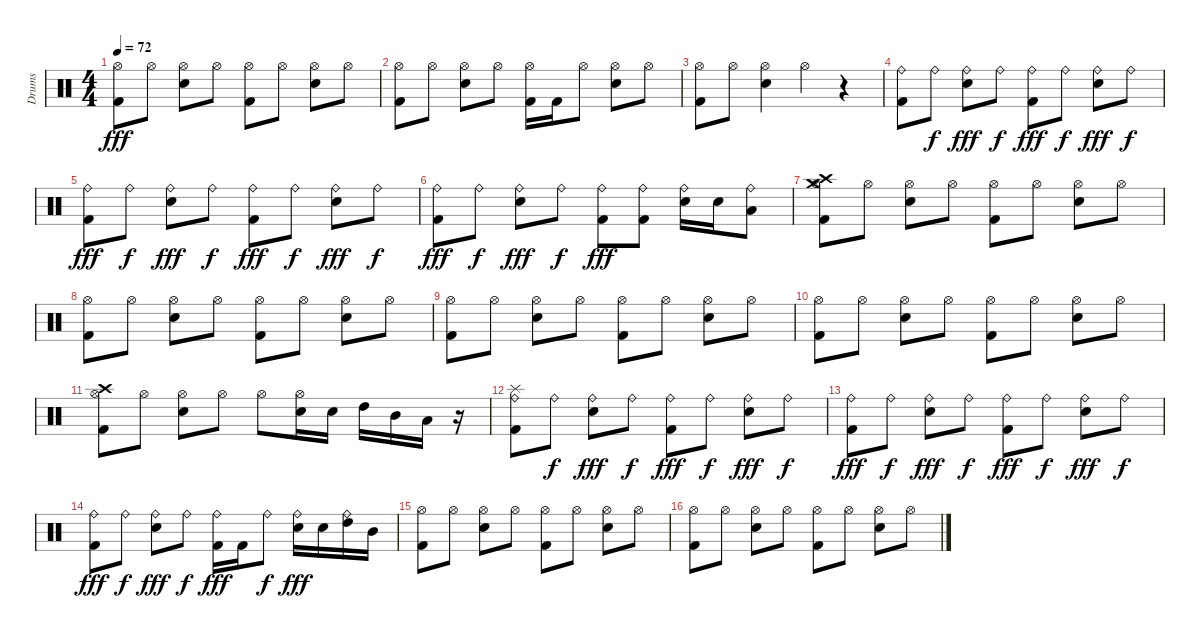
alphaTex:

\track ("Drums" "Drums") {instrument percussion}
\staff {score}
\articulation defaults
\ts (4 4)
\tempo 72
\clef neutral
\ks c
("Hi-Hat (open)" "Kick (hit) 2").8{dy fff} "Hi-Hat (open)".8 ("Hi-Hat (open)" "Snare (hit) 2").8 "Hi-Hat (open)".8 ("Hi-Hat (open)" "Kick (hit) 2").8 "Hi-Hat (open)".8 ("Hi-Hat (open)" "Snare (hit) 2").8 "Hi-Hat (open)".8 |
("Hi-Hat (open)" "Kick (hit) 2").8 "Hi-Hat (open)".8 ("Hi-Hat (open)" "Snare (hit) 2").8 "Hi-Hat (open)".8 ("Kick (hit) 2" "Hi-Hat (open)").16 "Kick (hit) 2".16 "Hi-Hat (open)".8 ("Hi-Hat (open)" "Snare (hit) 2").8 "Hi-Hat (open)".8 |
("Hi-Hat (open)" "Kick (hit) 2").8 "Hi-Hat (open)".8 ("Hi-Hat (open)" "Snare (hit) 2").4 "Hi-Hat (open)".4 r.4 |
("Ride (bell)" "Kick (hit) 2").8 "Ride (bell)".8{dy f} ("Ride (bell)" "Snare (hit) 2").8{dy fff} "Ride (bell)".8{dy f} ("Ride (bell)" "Kick (hit) 2").8{dy fff} "Ride (bell)".8{dy f} ("Ride (bell)" "Snare (hit) 2").8{dy fff} "Ride (bell)".8{dy f} |
("Ride (bell)" "Kick (hit) 2").8{dy fff} "Ride (bell)".8{dy f} ("Ride (bell)" "Snare (hit) 2").8{dy fff} "Ride (bell)".8{dy f} ("Ride (bell)" "Kick (hit) 2").8{dy fff} "Ride (bell)".8{dy f} ("Ride (bell)" "Snare (hit) 2").8{dy fff} "Ride (bell)".8{dy f} |
("Ride (bell)" "Kick (hit) 2").8{dy fff} "Ride (bell)".8{dy f} ("Ride (bell)" "Snare (hit) 2").8{dy fff} "Ride (bell)".8{dy f} ("Ride (bell)" "Kick (hit) 2").8{dy fff} ("Ride (bell)" "Kick (hit) 2").8 ("Ride (bell)" "Electric Snare (hit)").16 "Electric Snare (hit)".16 ("Ride (bell)" "Low Tom (hit)").8 |
("Crash medium (hit)" "Crash high (hit)" "Hi-Hat (open)" "Kick (hit) 2").8 "Hi-Hat (open)".8 ("Hi-Hat (open)" "Snare (hit) 2").8 "Hi-Hat (open)".8 ("Hi-Hat (open)" "Kick (hit) 2").8 "Hi-Hat (open)".8 ("Hi-Hat (open)" "Snare (hit) 2").8 "Hi-Hat (open)".8 |
("Hi-Hat (open)" "Kick (hit) 2").8 "Hi-Hat (open)".8 ("Hi-Hat (open)" "Snare (hit) 2").8 "Hi-Hat (open)".8 ("Hi-Hat (open)" "Kick (hit) 2").8 "Hi-Hat (open)".8 ("Hi-Hat (open)" "Snare (hit) 2").8 "Hi-Hat (open)".8 |
("Hi-Hat (open)" "Kick (hit) 2").8 "Hi-Hat (open)".8 ("Hi-Hat (open)" "Snare (hit) 2").8 "Hi-Hat (open)".8 ("Hi-Hat (open)" "Kick (hit) 2").8 "Hi-Hat (open)".8 ("Hi-Hat (open)" "Snare (hit) 2").8 "Hi-Hat (open)".8 |
("Hi-Hat (open)" "Kick (hit) 2").8 "Hi-Hat (open)".8 ("Hi-Hat (open)" "Snare (hit) 2").8 "Hi-Hat (open)".8 ("Hi-Hat (open)" "Kick (hit) 2").8 "Hi-Hat (open)".8 ("Hi-Hat (open)" "Snare (hit) 2").8 "Hi-Hat (open)".8 |
("Hi-Hat (open)" "Kick (hit) 2" "Crash high (hit)").8 "Hi-Hat (open)".8 ("Hi-Hat (open)" "Electric Snare (hit)").8 "Hi-Hat (open)".8 "Hi-Hat (open)".8 ("Hi-Hat (open)" "Electric Snare (hit)").16 "Electric Snare (hit)".16 "High Tom (hit)".16 "Mid Tom (hit)".16 "Low Tom (hit)".16 r.16 |
("Ride (bell)" "Splash (hit)" "Kick (hit) 2").8 "Ride (bell)".8{dy f} ("Ride (bell)" "Electric Snare (hit)").8{dy fff} "Ride (bell)".8{dy f} ("Ride (bell)" "Kick (hit) 2").8{dy fff} "Ride (bell)".8{dy f} ("Ride (bell)" "Electric Snare (hit)").8{dy fff} "Ride (bell)".8{dy f} |
("Ride (bell)" "Kick (hit) 2").8{dy fff} "Ride (bell)".8{dy f} ("Ride (bell)" "Electric Snare (hit)").8{dy fff} "Ride (bell)".8{dy f} ("Ride (bell)" "Kick (hit) 2").8{dy fff} "Ride (bell)".8{dy f} ("Ride (bell)" "Electric Snare (hit)").8{dy fff} "Ride (bell)".8{dy f} |
("Ride (bell)" "Kick (hit) 2").8{dy fff} "Ride (bell)".8{dy f} ("Ride (bell)" "Electric Snare (hit)").8{dy fff} "Ride (bell)".8{dy f} ("Ride (bell)" "Kick (hit) 2").16{dy fff} "Kick (hit) 2".16 "Ride (bell)".8{dy f} ("Ride (bell)" "Electric Snare (hit)").16{dy fff} "Electric Snare (hit)".16 ("Ride (bell)" "High Tom (hit)").16 "Mid Tom (hit)".16 |
("Hi-Hat (open)" "Kick (hit) 2").8 "Hi-Hat (open)".8 ("Hi-Hat (open)" "Snare (hit) 2").8 "Hi-Hat (open)".8 ("Hi-Hat (open)" "Kick (hit) 2").8 "Hi-Hat (open)".8 ("Hi-Hat (open)" "Snare (hit) 2").8 "Hi-Hat (open)".8 |
("Hi-Hat (open)" "Kick (hit) 2").8 "Hi-Hat (open)".8 ("Hi-Hat (open)" "Snare (hit) 2").8 "Hi-Hat (open)".8 ("Hi-Hat (open)" "Kick (hit) 2").8 "Hi-Hat (open)".8 ("Hi-Hat (open)" "Snare (hit) 2").8 "Hi-Hat (open)".8
